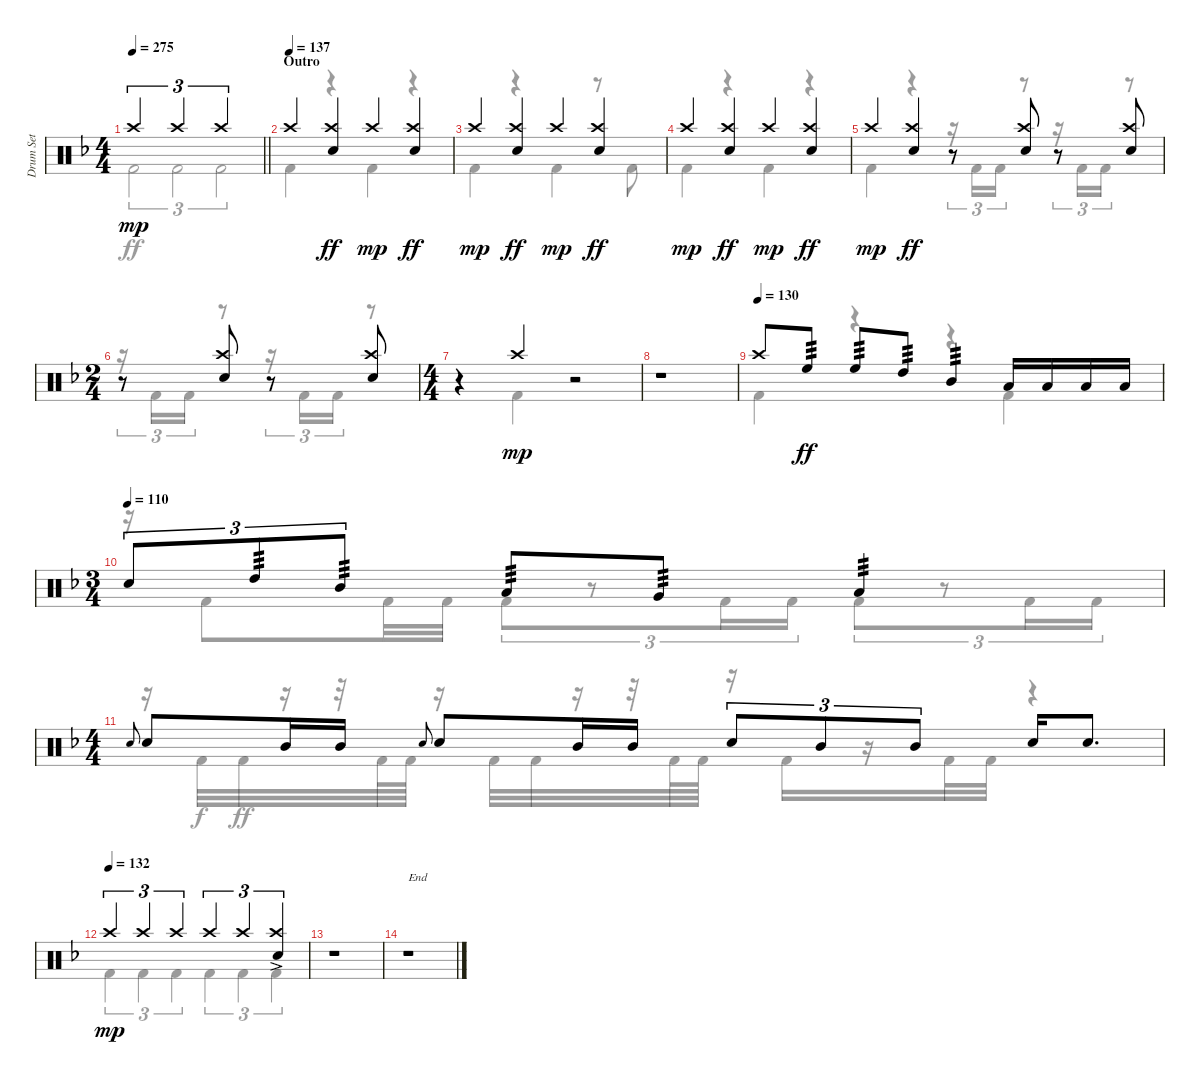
\track ("Drum Set" "Drum Set") {instrument percussion}
\staff {score}
\articulation defaults
\voice
\ts (4 4)
\tempo 275
\clef neutral
\barLineRight lightlight
\ks dminor "Crash high (hit)".2{tu (3 2) dy mp} "Crash high (hit)".2{tu (3 2)} "Crash high (hit)".2{tu (3 2)}
|
\section ("" "Outro")
\tempo (137)
"Crash high (hit)".4 ("Crash high (hit)" "Electric Snare (hit)").4{dy ff} "Crash high (hit)".4{dy mp} ("Crash high (hit)" "Electric Snare (hit)").4{dy ff} |
"Crash high (hit)".4{dy mp} ("Crash high (hit)" "Electric Snare (hit)").4{dy ff} "Crash high (hit)".4{dy mp} ("Crash high (hit)" "Electric Snare (hit)").4{dy ff} |
"Crash high (hit)".4{dy mp} ("Crash high (hit)" "Electric Snare (hit)").4{dy ff} "Crash high (hit)".4{dy mp} ("Crash high (hit)" "Electric Snare (hit)").4{dy ff} |
"Crash high (hit)".4{dy mp} ("Crash high (hit)" "Electric Snare (hit)").4{dy ff} r.8 ("Crash high (hit)" "Electric Snare (hit)").8 r.8 ("Crash high (hit)" "Electric Snare (hit)").8 |
\ts (2 4)
r.8 ("Crash high (hit)" "Electric Snare (hit)").8 r.8 ("Crash high (hit)" "Electric Snare (hit)").8 |
\ts (4 4)
r.4 "Crash high (hit)".4{dy mp} r.2 |
r.1 |
\tempo (130)
"Crash high (hit)".8 "High Floor Tom (hit)".8{tp 3 dy ff} "High Floor Tom (hit)".8{tp 3} "High Tom (hit)".8{tp 3} "Mid Tom (hit)".4{tp 3} "Low Tom (hit)".16 "Low Tom (hit)".16 "Low Tom (hit)".16 "Low Tom (hit)".16 |
\ts (3 4)
\tempo (110)
"Electric Snare (hit)".8{tu (3 2)} "High Tom (hit)".8{tu (3 2) tp 3} "Mid Tom (hit)".8{tu (3 2) tp 3} "Low Tom (hit)".8{tp 3} "Very Low Tom (hit)".8{tp 3} "Low Floor Tom (hit)".4{tp 3} |
\ts (4 4)
"Electric Snare (hit)".8{gr onbeat} "Electric Snare (hit)".8 "Mid Tom (hit)".16 "Mid Tom (hit)".16 "Electric Snare (hit)".8{gr onbeat} "Electric Snare (hit)".8 "Mid Tom (hit)".16 "Mid Tom (hit)".16 "Electric Snare (hit)".8{tu (3 2)} "Mid Tom (hit)".8{tu (3 2)} "Mid Tom (hit)".8{tu (3 2)} "Electric Snare (hit)".16 "Electric Snare (hit)".8{d} |
\tempo (132)
"Crash high (hit)".4{tu (3 2) dy mp} "Crash high (hit)".4{tu (3 2)} "Crash high (hit)".4{tu (3 2)} "Crash high (hit)".4{tu (3 2)} "Crash high (hit)".4{tu (3 2)} ("Electric Snare (hit)"{ac} "Crash high (hit)").4{tu (3 2)} |
r.1 |
r.1{txt "End"}
\voice
\clef neutral
\ottava regular
\simile none
\barLineRight lightlight
\ks dminor "Kick (hit) 2".2{tu (3 2) dy ff} "Kick (hit) 2".2{tu (3 2)} "Kick (hit) 2".2{tu (3 2)}
|
"Kick (hit) 2".4 r.4 "Kick (hit) 2".4 r.4 |
"Kick (hit) 2".4 r.4 "Kick (hit) 2".4 r.8 "Kick (hit) 2".8 |
"Kick (hit) 2".4 r.4 "Kick (hit) 2".4 r.4 |
"Kick (hit) 2".4 r.4 r.16{tu (3 2)} "Kick (hit) 2".16{tu (3 2)} "Kick (hit) 2".16{tu (3 2)} r.8 r.16{tu (3 2)} "Kick (hit) 2".16{tu (3 2)} "Kick (hit) 2".16{tu (3 2)} r.8 |
r.16{tu (3 2)} "Kick (hit) 2".16{tu (3 2)} "Kick (hit) 2".16{tu (3 2)} r.8 r.16{tu (3 2)} "Kick (hit) 2".16{tu (3 2)} "Kick (hit) 2".16{tu (3 2)} r.8 |
r.4 "Kick (hit) 2".4 r.2 |
|
"Kick (hit) 2".4 r.4 r.4 "Kick (hit) 2".4 |
r.16 "Kick (hit) 2".8 "Kick (hit) 2".32 "Kick (hit) 2".32 "Kick (hit) 2".8{tu (3 2)} r.8{tu (3 2)} "Kick (hit) 2".16{tu (3 2)} "Kick (hit) 2".16{tu (3 2)} "Kick (hit) 2".8{tu (3 2)} r.8{tu (3 2)} "Kick (hit) 2".16{tu (3 2)} "Kick (hit) 2".16{tu (3 2)} |
r.16 "Kick (hit) 2".32{dy f} "Kick (hit) 2".32{dy ff} r.16 r.32 "Kick (hit) 2".64 "Kick (hit) 2".64 r.16 "Kick (hit) 2".32 "Kick (hit) 2".32 r.16 r.32 "Kick (hit) 2".64 "Kick (hit) 2".64 r.16 "Kick (hit) 2".16 r.16 "Kick (hit) 2".32 "Kick (hit) 2".32 r.4 |
"Kick (hit) 2".4{tu (3 2)} "Kick (hit) 2".4{tu (3 2)} "Kick (hit) 2".4{tu (3 2)} "Kick (hit) 2".4{tu (3 2)} "Kick (hit) 2".4{tu (3 2)} "Kick (hit) 2".4{tu (3 2)} |
|
